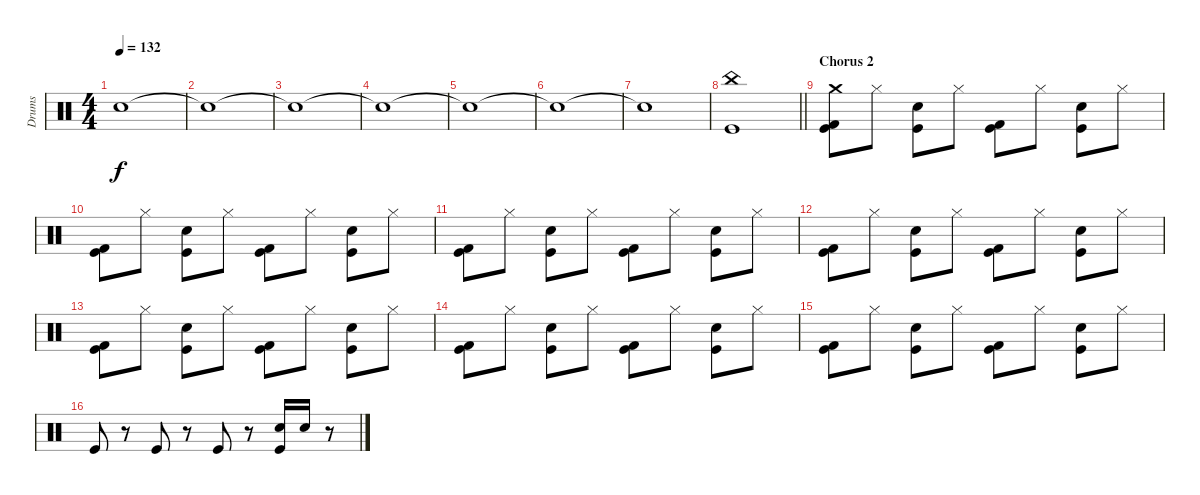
\track ("Drums" "Drums") {instrument percussion}
\staff {score}
\articulation defaults
\ts (4 4)
\tempo 132
\clef neutral
\ks c "Snare (hit)"{t}.1{dy f}
|
"Snare (hit)"{t}.1 |
"Snare (hit)"{t}.1 |
"Snare (hit)"{t}.1 |
"Snare (hit)"{t}.1 |
"Snare (hit)"{t}.1 |
"Snare (hit)"{t}.1 |
\barLineRight lightlight
("Kick (hit)" "China (hit)").1 |
\section ("" "Chorus 2")
("Crash medium (hit)" "Kick (hit)" "Kick (hit) 2").8 "Hi-Hat (closed)".8 ("Hand Clap (hit)" "Kick (hit)").8 "Hi-Hat (closed)".8 ("Kick (hit) 2" "Kick (hit)").8 "Hi-Hat (closed)".8 ("Kick (hit)" "Hand Clap (hit)").8 "Hi-Hat (closed)".8 |
("Kick (hit) 2" "Kick (hit)").8 "Hi-Hat (closed)".8 ("Kick (hit)" "Hand Clap (hit)").8 "Hi-Hat (closed)".8 ("Kick (hit)" "Kick (hit) 2").8 "Hi-Hat (closed)".8 ("Kick (hit)" "Hand Clap (hit)").8 "Hi-Hat (closed)".8 |
("Kick (hit)" "Kick (hit) 2").8 "Hi-Hat (closed)".8 ("Hand Clap (hit)" "Kick (hit)").8 "Hi-Hat (closed)".8 ("Kick (hit)" "Kick (hit) 2").8 "Hi-Hat (closed)".8 ("Kick (hit)" "Hand Clap (hit)").8 "Hi-Hat (closed)".8 |
("Kick (hit)" "Kick (hit) 2").8 "Hi-Hat (closed)".8 ("Hand Clap (hit)" "Kick (hit)").8 "Hi-Hat (closed)".8 ("Kick (hit)" "Kick (hit) 2").8 "Hi-Hat (closed)".8 ("Kick (hit)" "Hand Clap (hit)").8 "Hi-Hat (closed)".8 |
("Kick (hit)" "Kick (hit) 2").8 "Hi-Hat (closed)".8 ("Hand Clap (hit)" "Kick (hit)").8 "Hi-Hat (closed)".8 ("Kick (hit) 2" "Kick (hit)").8 "Hi-Hat (closed)".8 ("Kick (hit)" "Hand Clap (hit)").8 "Hi-Hat (closed)".8 |
("Kick (hit) 2" "Kick (hit)").8 "Hi-Hat (closed)".8 ("Kick (hit)" "Hand Clap (hit)").8 "Hi-Hat (closed)".8 ("Kick (hit)" "Kick (hit) 2").8 "Hi-Hat (closed)".8 ("Kick (hit)" "Hand Clap (hit)").8 "Hi-Hat (closed)".8 |
("Kick (hit)" "Kick (hit) 2").8 "Hi-Hat (closed)".8 ("Hand Clap (hit)" "Kick (hit)").8 "Hi-Hat (closed)".8 ("Kick (hit)" "Kick (hit) 2").8 "Hi-Hat (closed)".8 ("Kick (hit)" "Hand Clap (hit)").8 "Hi-Hat (closed)".8 |
"Kick (hit)".8 r.8 "Kick (hit)".8 r.8 "Kick (hit)".8 r.8 ("Snare (hit) 2" "Kick (hit)").16 "Snare (hit) 2".16 r.8
